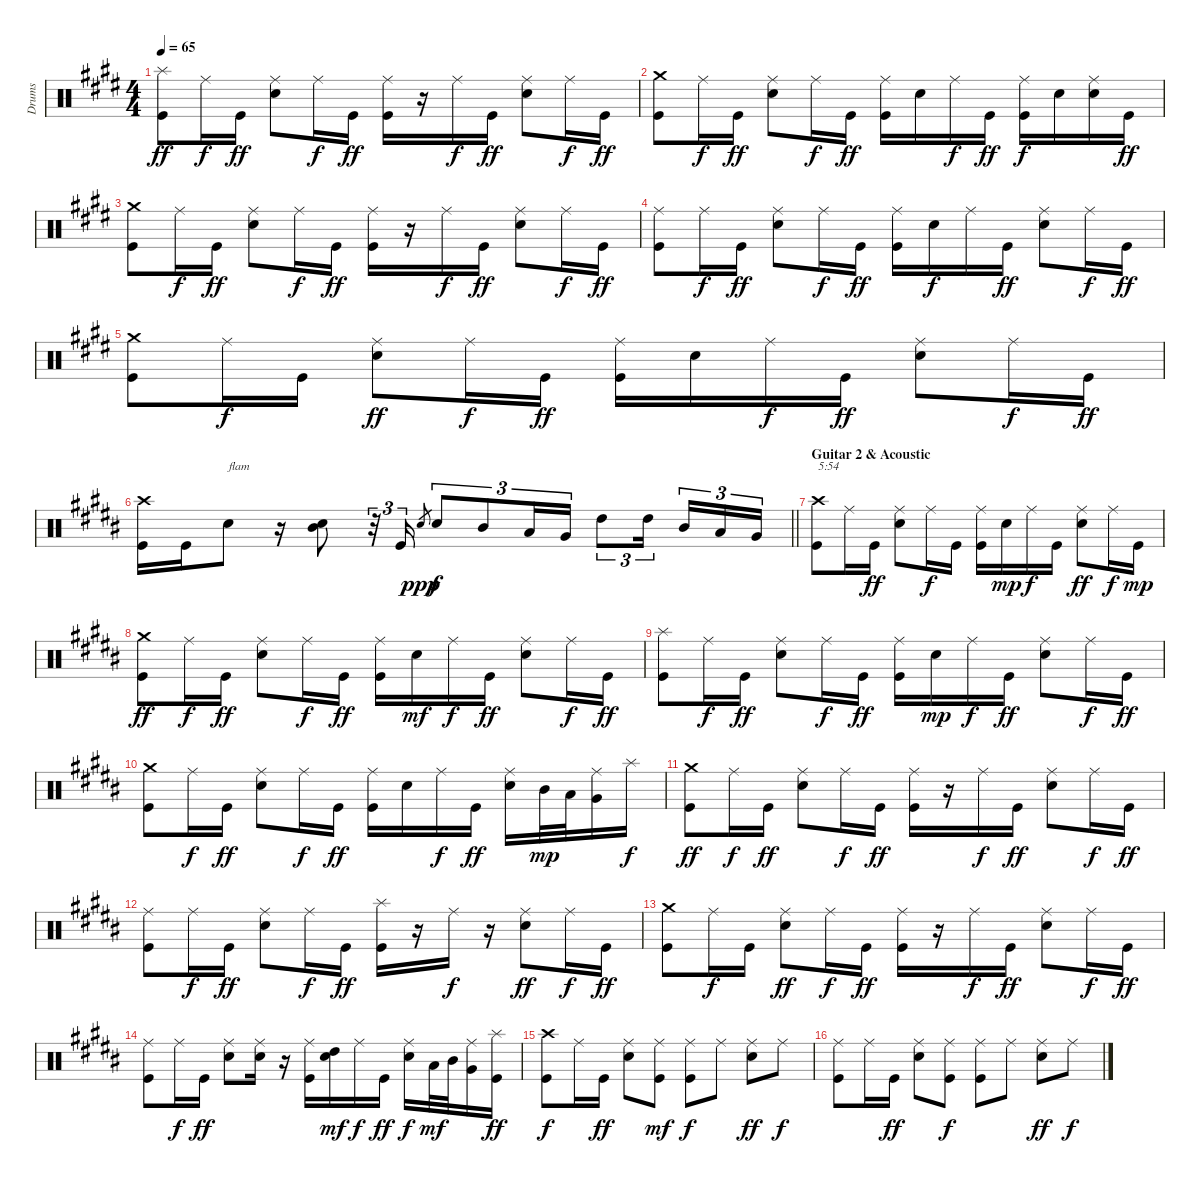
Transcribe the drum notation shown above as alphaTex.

\track ("Drums" "Drums") {instrument percussion}
\staff {score}
\articulation defaults
\ts (4 4)
\tempo 65
\clef neutral
\ks c#minor
("Splash (hit)" "Kick (hit)").8{dy ff} "Ride (middle)".16{dy f} "Kick (hit)".16{dy ff} ("Ride (middle)" "Electric Snare (hit)").8 "Ride (middle)".16{dy f} "Kick (hit)".16{dy ff} ("Ride (middle)" "Kick (hit)").16 r.16 "Ride (middle)".16{dy f} "Kick (hit)".16{dy ff} ("Ride (middle)" "Electric Snare (hit)").8 "Ride (middle)".16{dy f} "Kick (hit)".16{dy ff} |
("Crash medium (hit)" "Kick (hit)").8 "Ride (middle)".16{dy f} "Kick (hit)".16{dy ff} ("Ride (middle)" "Electric Snare (hit)").8 "Ride (middle)".16{dy f} "Kick (hit)".16{dy ff} ("Ride (middle)" "Kick (hit)").16 "Electric Snare (hit)".16 "Ride (middle)".16{dy f} "Kick (hit)".16{dy ff} ("Ride (middle)" "Kick (hit)").16{dy f} "Electric Snare (hit)".16 ("Ride (middle)" "Electric Snare (hit)").16 "Kick (hit)".16{dy ff} |
("Crash medium (hit)" "Kick (hit)").8 "Ride (middle)".16{dy f} "Kick (hit)".16{dy ff} ("Ride (middle)" "Electric Snare (hit)").8 "Ride (middle)".16{dy f} "Kick (hit)".16{dy ff} ("Ride (middle)" "Kick (hit)").16 r.16 "Ride (middle)".16{dy f} "Kick (hit)".16{dy ff} ("Ride (middle)" "Electric Snare (hit)").8 "Ride (middle)".16{dy f} "Kick (hit)".16{dy ff} |
("Ride (middle)" "Kick (hit)").8 "Ride (middle)".16{dy f} "Kick (hit)".16{dy ff} ("Ride (middle)" "Electric Snare (hit)").8 "Ride (middle)".16{dy f} "Kick (hit)".16{dy ff} ("Ride (middle)" "Kick (hit)").16 "Electric Snare (hit)".16{dy f} "Ride (middle)".16 "Kick (hit)".16{dy ff} ("Ride (middle)" "Electric Snare (hit)").8 "Ride (middle)".16{dy f} "Kick (hit)".16{dy ff} |
("Crash medium (hit)" "Kick (hit)").8 "Ride (middle)".16{dy f} "Kick (hit)".16 ("Ride (middle)" "Electric Snare (hit)").8{dy ff} "Ride (middle)".16{dy f} "Kick (hit)".16{dy ff} ("Ride (middle)" "Kick (hit)").16 "Electric Snare (hit)".16 "Ride (middle)".16{dy f} "Kick (hit)".16{dy ff} ("Ride (middle)" "Electric Snare (hit)").8 "Ride (middle)".16{dy f} "Kick (hit)".16{dy ff} |
\barLineRight lightlight
\ks b
("Crash high (hit)" "Kick (hit)").16 "Kick (hit)".16 "Electric Snare (hit)".8{txt "flam"} r.16 ("Mid Tom (hit)" "Electric Snare (hit)").8 r.32{tu (3 2)} "Kick (hit)".16{tu (3 2)} "Electric Snare (hit)".8{gr dy ppp} "Electric Snare (hit)".8{tu (3 2) dy f} "Mid Tom (hit)".8{tu (3 2)} "Low Tom (hit)".16{tu (3 2)} "Very Low Tom (hit)".16{tu (3 2)} "High Tom (hit)".8{tu (3 2)} "High Tom (hit)".16{tu (3 2) beam splitsecondary} "Mid Tom (hit)".16{tu (3 2)} "Low Tom (hit)".16{tu (3 2)} "Very Low Tom (hit)".16{tu (3 2)} |
\section ("" "Guitar 2 & Acoustic")
("Crash high (hit)" "Kick (hit)").8{txt "5:54"} "Ride (middle)".16 "Kick (hit)".16{dy ff} ("Ride (middle)" "Electric Snare (hit)").8 "Ride (middle)".16{dy f} "Kick (hit)".16 ("Ride (middle)" "Kick (hit)").16 "Electric Snare (hit)".16{dy mp} "Ride (middle)".16{dy f} "Kick (hit)".16 ("Ride (middle)" "Electric Snare (hit)").8{dy ff} "Ride (middle)".16{dy f} "Kick (hit)".16{dy mp} |
("Crash medium (hit)" "Kick (hit)").8{dy ff} "Ride (middle)".16{dy f} "Kick (hit)".16{dy ff} ("Ride (middle)" "Electric Snare (hit)").8 "Ride (middle)".16{dy f} "Kick (hit)".16{dy ff} ("Ride (middle)" "Kick (hit)").16 "Electric Snare (hit)".16{dy mf} "Ride (middle)".16{dy f} "Kick (hit)".16{dy ff} ("Ride (middle)" "Electric Snare (hit)").8 "Ride (middle)".16{dy f} "Kick (hit)".16{dy ff} |
("Splash (hit)" "Kick (hit)").8 "Ride (middle)".16{dy f} "Kick (hit)".16{dy ff} ("Ride (middle)" "Electric Snare (hit)").8 "Ride (middle)".16{dy f} "Kick (hit)".16{dy ff} ("Ride (middle)" "Kick (hit)").16 "Electric Snare (hit)".16{dy mp} "Ride (middle)".16{dy f} "Kick (hit)".16{dy ff} ("Ride (middle)" "Electric Snare (hit)").8 "Ride (middle)".16{dy f} "Kick (hit)".16{dy ff} |
("Crash medium (hit)" "Kick (hit)").8 "Ride (middle)".16{dy f} "Kick (hit)".16{dy ff} ("Ride (middle)" "Electric Snare (hit)").8 "Ride (middle)".16{dy f} "Kick (hit)".16{dy ff} ("Ride (middle)" "Kick (hit)").16 "Electric Snare (hit)".16 "Ride (middle)".16{dy f} "Kick (hit)".16{dy ff} ("Ride (middle)" "Electric Snare (hit)").16 "Mid Tom (hit)".32{dy mp} "Low Tom (hit)".32 ("Ride (middle)" "Very Low Tom (hit)").16 "Splash (hit)".16{dy f} |
("Crash medium (hit)" "Kick (hit)").8{dy ff} "Ride (middle)".16{dy f} "Kick (hit)".16{dy ff} ("Ride (middle)" "Electric Snare (hit)").8 "Ride (middle)".16{dy f} "Kick (hit)".16{dy ff} ("Ride (middle)" "Kick (hit)").16 r.16 "Ride (middle)".16{dy f} "Kick (hit)".16{dy ff} ("Ride (middle)" "Electric Snare (hit)").8 "Ride (middle)".16{dy f} "Kick (hit)".16{dy ff} |
("Ride (middle)" "Kick (hit)").8 "Ride (middle)".16{dy f} "Kick (hit)".16{dy ff} ("Ride (middle)" "Electric Snare (hit)").8 "Ride (middle)".16{dy f} "Kick (hit)".16{dy ff} ("Splash (hit)" "Kick (hit)").16 r.16 "Ride (middle)".16{dy f} r.16 ("Ride (middle)" "Electric Snare (hit)").8{dy ff} "Ride (middle)".16{dy f} "Kick (hit)".16{dy ff} |
("Crash medium (hit)" "Kick (hit)").8 "Ride (middle)".16{dy f} "Kick (hit)".16 ("Ride (middle)" "Electric Snare (hit)").8{dy ff} "Ride (middle)".16{dy f} "Kick (hit)".16{dy ff} ("Ride (middle)" "Kick (hit)").16 r.16 "Ride (middle)".16{dy f} "Kick (hit)".16{dy ff} ("Ride (middle)" "Electric Snare (hit)").8 "Ride (middle)".16{dy f} "Kick (hit)".16{dy ff} |
("Ride (middle)" "Kick (hit)").8 "Ride (middle)".16{dy f} "Kick (hit)".16{dy ff} ("Ride (middle)" "Electric Snare (hit)").8 ("Ride (middle)" "Electric Snare (hit)").16 r.16 ("Ride (middle)" "Kick (hit)").16 ("High Tom (hit)" "Electric Snare (hit)").16{dy mf} "Ride (middle)".16{dy f} "Kick (hit)".16{dy ff} ("Ride (middle)" "Electric Snare (hit)").16{dy f} "Low Tom (hit)".32{dy mf} "Mid Tom (hit)".32 ("Ride (middle)" "Very Low Tom (hit)").16 ("Splash (hit)" "Kick (hit)").16{dy ff} |
("Crash high (hit)" "Kick (hit)").8{dy f} "Ride (middle)".16 "Kick (hit)".16{dy ff} ("Ride (middle)" "Electric Snare (hit)").8 ("Ride (middle)" "Kick (hit)").8{dy mf} ("Ride (middle)" "Kick (hit)").8{dy f} "Ride (middle)".8 ("Ride (middle)" "Electric Snare (hit)").8{dy ff} "Ride (middle)".8{dy f} |
("Ride (middle)" "Kick (hit)").8 "Ride (middle)".16 "Kick (hit)".16{dy ff} ("Ride (middle)" "Electric Snare (hit)").8 ("Ride (middle)" "Kick (hit)").8{dy f} ("Ride (middle)" "Kick (hit)").8 "Ride (middle)".8 ("Ride (middle)" "Electric Snare (hit)").8{dy ff} "Ride (middle)".8{dy f}
